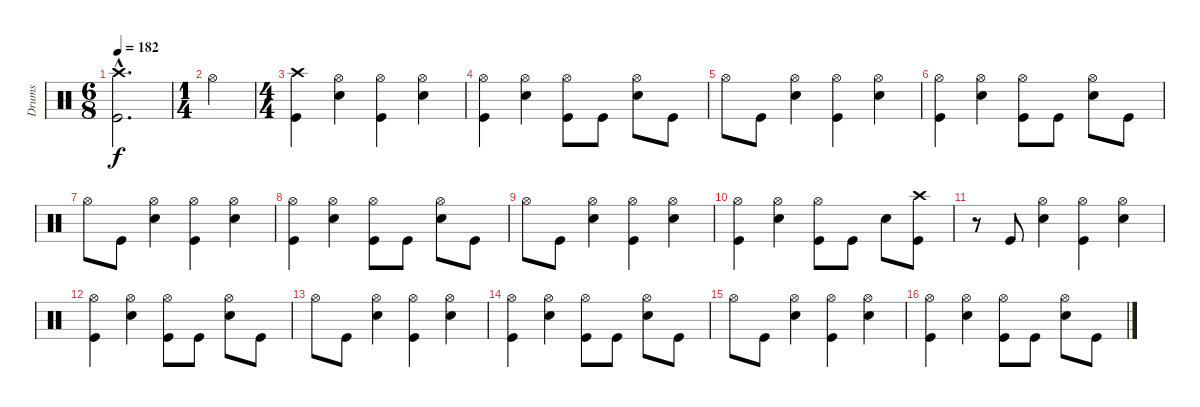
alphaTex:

\track ("Drums" "Drums") {instrument percussion}
\staff {score}
\articulation defaults
\ts (6 8)
\tempo 182
\clef neutral
\ks c
("Crash high (hit)"{hac} "Kick (hit)"{hac}).2{d dy f} |
\ts (1 4)
"Hi-Hat (open)".4 |
\ts (4 4)
("Crash high (hit)" "Kick (hit)").4 ("Hi-Hat (open)" "Electric Snare (hit)").4 ("Hi-Hat (open)" "Kick (hit)").4 ("Hi-Hat (open)" "Electric Snare (hit)").4 |
("Hi-Hat (open)" "Kick (hit)").4 ("Hi-Hat (open)" "Electric Snare (hit)").4 ("Hi-Hat (open)" "Kick (hit)").8 "Kick (hit)".8 ("Hi-Hat (open)" "Electric Snare (hit)").8 "Kick (hit)".8 |
"Hi-Hat (open)".8 "Kick (hit)".8 ("Hi-Hat (open)" "Electric Snare (hit)").4 ("Kick (hit)" "Hi-Hat (open)").4 ("Hi-Hat (open)" "Electric Snare (hit)").4 |
("Hi-Hat (open)" "Kick (hit)").4 ("Hi-Hat (open)" "Electric Snare (hit)").4 ("Hi-Hat (open)" "Kick (hit)").8 "Kick (hit)".8 ("Hi-Hat (open)" "Electric Snare (hit)").8 "Kick (hit)".8 |
"Hi-Hat (open)".8 "Kick (hit)".8 ("Hi-Hat (open)" "Electric Snare (hit)").4 ("Kick (hit)" "Hi-Hat (open)").4 ("Hi-Hat (open)" "Electric Snare (hit)").4 |
("Hi-Hat (open)" "Kick (hit)").4 ("Hi-Hat (open)" "Electric Snare (hit)").4 ("Hi-Hat (open)" "Kick (hit)").8 "Kick (hit)".8 ("Hi-Hat (open)" "Electric Snare (hit)").8 "Kick (hit)".8 |
"Hi-Hat (open)".8 "Kick (hit)".8 ("Hi-Hat (open)" "Electric Snare (hit)").4 ("Kick (hit)" "Hi-Hat (open)").4 ("Hi-Hat (open)" "Electric Snare (hit)").4 |
("Hi-Hat (open)" "Kick (hit)").4 ("Hi-Hat (open)" "Electric Snare (hit)").4 ("Hi-Hat (open)" "Kick (hit)").8 "Kick (hit)".8 "Electric Snare (hit)".8 ("Crash high (hit)" "Kick (hit)").8 |
r.8 "Kick (hit)".8 ("Hi-Hat (open)" "Electric Snare (hit)").4 ("Kick (hit)" "Hi-Hat (open)").4 ("Hi-Hat (open)" "Electric Snare (hit)").4 |
("Hi-Hat (open)" "Kick (hit)").4 ("Hi-Hat (open)" "Electric Snare (hit)").4 ("Hi-Hat (open)" "Kick (hit)").8 "Kick (hit)".8 ("Hi-Hat (open)" "Electric Snare (hit)").8 "Kick (hit)".8 |
"Hi-Hat (open)".8 "Kick (hit)".8 ("Hi-Hat (open)" "Electric Snare (hit)").4 ("Kick (hit)" "Hi-Hat (open)").4 ("Hi-Hat (open)" "Electric Snare (hit)").4 |
("Hi-Hat (open)" "Kick (hit)").4 ("Hi-Hat (open)" "Electric Snare (hit)").4 ("Hi-Hat (open)" "Kick (hit)").8 "Kick (hit)".8 ("Hi-Hat (open)" "Electric Snare (hit)").8 "Kick (hit)".8 |
"Hi-Hat (open)".8 "Kick (hit)".8 ("Hi-Hat (open)" "Electric Snare (hit)").4 ("Kick (hit)" "Hi-Hat (open)").4 ("Hi-Hat (open)" "Electric Snare (hit)").4 |
("Hi-Hat (open)" "Kick (hit)").4 ("Hi-Hat (open)" "Electric Snare (hit)").4 ("Hi-Hat (open)" "Kick (hit)").8 "Kick (hit)".8 ("Hi-Hat (open)" "Electric Snare (hit)").8 "Kick (hit)".8
